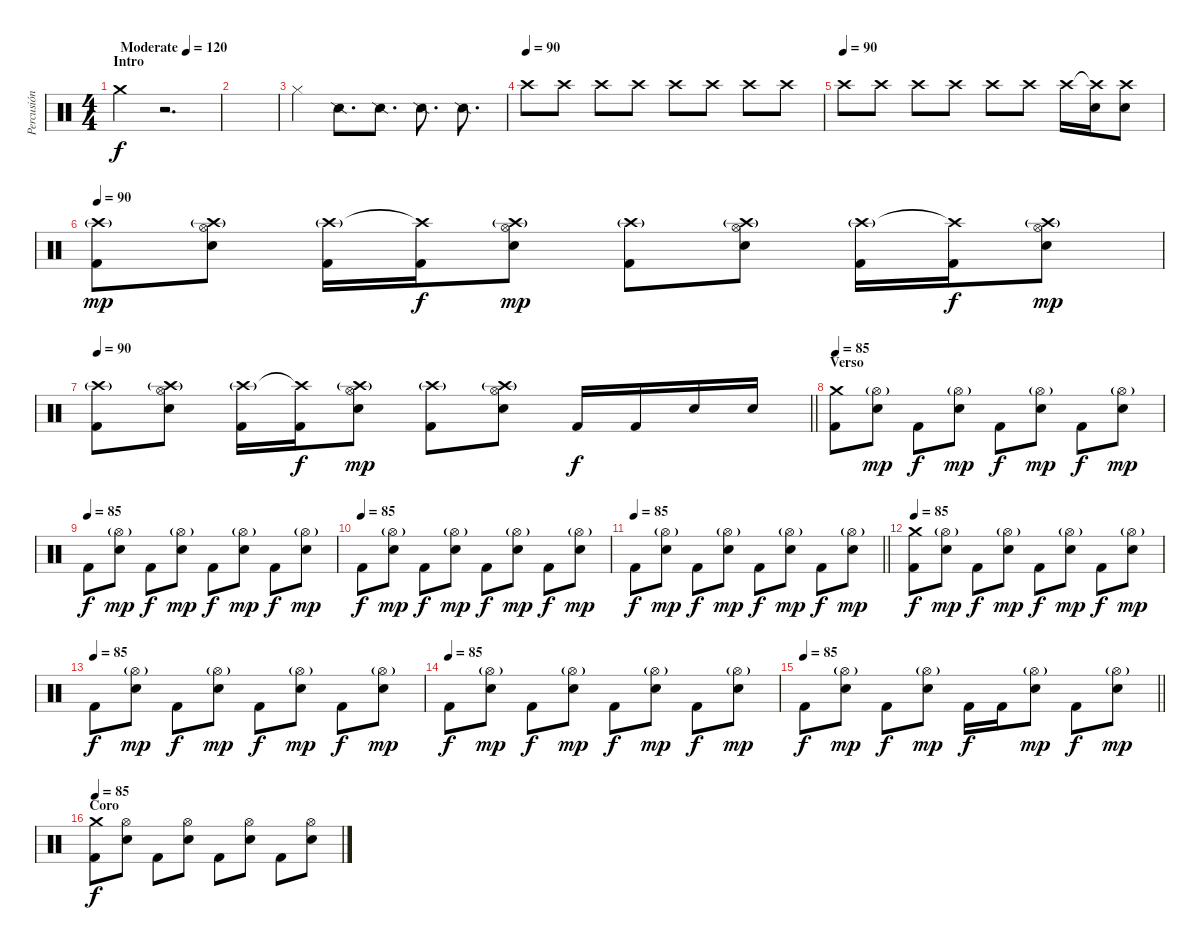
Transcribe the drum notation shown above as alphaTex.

\track ("Percusión" "Percusión") {instrument percussion}
\staff {score}
\articulation defaults
\ts (4 4)
\section ("" "Intro")
\tempo (120 "Moderate")
\clef neutral
\ks c "Crash medium (hit)".4{dy f}
r.2{d} |
|
"Hi-Hat (closed)".4 "Snare (side stick) 2".8{d} "Snare (side stick) 2".8{d} "Snare (side stick) 2".8{d} "Snare (side stick) 2".8{d} |
\tempo (90)
"Crash high (hit)".8 "Crash high (hit)".8 "Crash high (hit)".8 "Crash high (hit)".8 "Crash high (hit)".8 "Crash high (hit)".8 "Crash high (hit)".8 "Crash high (hit)".8 |
\tempo (90)
"Crash high (hit)".8 "Crash high (hit)".8 "Crash high (hit)".8 "Crash high (hit)".8 "Crash high (hit)".8 "Crash high (hit)".8 "Crash high (hit)".16 ("Crash high (hit)"{t} "Snare (hit) 2").16 ("Crash high (hit)" "Electric Snare (hit)").8 |
\tempo 90
("Crash high (hit)"{g} "Kick (hit) 2").8{dy mp} ("Hi-Hat (open)" "Crash high (hit)"{g} "Electric Snare (hit)").8 ("Crash high (hit)"{g} "Kick (hit) 2").16 ("Crash high (hit)"{t} "Kick (hit) 2").16{dy f} ("Hi-Hat (open)" "Crash high (hit)"{g} "Electric Snare (hit)").8{dy mp} ("Crash high (hit)"{g} "Kick (hit) 2").8 ("Hi-Hat (open)" "Crash high (hit)"{g} "Electric Snare (hit)").8 ("Crash high (hit)"{g} "Kick (hit) 2").16 ("Crash high (hit)"{t} "Kick (hit) 2").16{dy f} ("Hi-Hat (open)" "Crash high (hit)"{g} "Electric Snare (hit)").8{dy mp} |
\tempo 90
\barLineRight lightlight
("Crash high (hit)"{g} "Kick (hit) 2").8 ("Hi-Hat (open)" "Crash high (hit)"{g} "Electric Snare (hit)").8 ("Crash high (hit)"{g} "Kick (hit) 2").16 ("Crash high (hit)"{t} "Kick (hit) 2").16{dy f} ("Hi-Hat (open)" "Crash high (hit)"{g} "Electric Snare (hit)").8{dy mp} ("Crash high (hit)"{g} "Kick (hit) 2").8 ("Hi-Hat (open)" "Crash high (hit)"{g} "Electric Snare (hit)").8 "Kick (hit) 2".16{dy f} "Kick (hit) 2".16 "Electric Snare (hit)".16 "Electric Snare (hit)".16 |
\section ("" "Verso")
\tempo 85
("Crash medium (hit)" "Kick (hit) 2").8 ("Hi-Hat (open)"{g} "Electric Snare (hit)").8{dy mp} "Kick (hit) 2".8{dy f} ("Hi-Hat (open)"{g} "Electric Snare (hit)").8{dy mp} "Kick (hit) 2".8{dy f} ("Hi-Hat (open)"{g} "Electric Snare (hit)").8{dy mp} "Kick (hit) 2".8{dy f} ("Hi-Hat (open)"{g} "Electric Snare (hit)").8{dy mp} |
\tempo (85)
"Kick (hit) 2".8{dy f} ("Hi-Hat (open)"{g} "Electric Snare (hit)").8{dy mp} "Kick (hit) 2".8{dy f} ("Hi-Hat (open)"{g} "Electric Snare (hit)").8{dy mp} "Kick (hit) 2".8{dy f} ("Hi-Hat (open)"{g} "Electric Snare (hit)").8{dy mp} "Kick (hit) 2".8{dy f} ("Hi-Hat (open)"{g} "Electric Snare (hit)").8{dy mp} |
\tempo (85)
"Kick (hit) 2".8{dy f} ("Hi-Hat (open)"{g} "Electric Snare (hit)").8{dy mp} "Kick (hit) 2".8{dy f} ("Hi-Hat (open)"{g} "Electric Snare (hit)").8{dy mp} "Kick (hit) 2".8{dy f} ("Hi-Hat (open)"{g} "Electric Snare (hit)").8{dy mp} "Kick (hit) 2".8{dy f} ("Hi-Hat (open)"{g} "Electric Snare (hit)").8{dy mp} |
\tempo 90
\tempo 85
\barLineRight lightlight "Kick (hit) 2".8{dy f}
("Hi-Hat (open)"{g} "Electric Snare (hit)").8{dy mp} "Kick (hit) 2".8{dy f} ("Hi-Hat (open)"{g} "Electric Snare (hit)").8{dy mp} "Kick (hit) 2".8{dy f} ("Hi-Hat (open)"{g} "Electric Snare (hit)").8{dy mp} "Kick (hit) 2".8{dy f} ("Hi-Hat (open)"{g} "Electric Snare (hit)").8{dy mp} |
\section ("" "")
\tempo 85
("Crash medium (hit)" "Kick (hit) 2").8{dy f} ("Hi-Hat (open)"{g} "Electric Snare (hit)").8{dy mp} "Kick (hit) 2".8{dy f} ("Hi-Hat (open)"{g} "Electric Snare (hit)").8{dy mp} "Kick (hit) 2".8{dy f} ("Hi-Hat (open)"{g} "Electric Snare (hit)").8{dy mp} "Kick (hit) 2".8{dy f} ("Hi-Hat (open)"{g} "Electric Snare (hit)").8{dy mp} |
\tempo (85)
"Kick (hit) 2".8{dy f} ("Hi-Hat (open)"{g} "Electric Snare (hit)").8{dy mp} "Kick (hit) 2".8{dy f} ("Hi-Hat (open)"{g} "Electric Snare (hit)").8{dy mp} "Kick (hit) 2".8{dy f} ("Hi-Hat (open)"{g} "Electric Snare (hit)").8{dy mp} "Kick (hit) 2".8{dy f} ("Hi-Hat (open)"{g} "Electric Snare (hit)").8{dy mp} |
\tempo (85)
"Kick (hit) 2".8{dy f} ("Hi-Hat (open)"{g} "Electric Snare (hit)").8{dy mp} "Kick (hit) 2".8{dy f} ("Hi-Hat (open)"{g} "Electric Snare (hit)").8{dy mp} "Kick (hit) 2".8{dy f} ("Hi-Hat (open)"{g} "Electric Snare (hit)").8{dy mp} "Kick (hit) 2".8{dy f} ("Hi-Hat (open)"{g} "Electric Snare (hit)").8{dy mp} |
\tempo 90
\tempo 85
\barLineRight lightlight "Kick (hit) 2".8{dy f}
("Hi-Hat (open)"{g} "Electric Snare (hit)").8{dy mp} "Kick (hit) 2".8{dy f} ("Hi-Hat (open)"{g} "Electric Snare (hit)").8{dy mp} "Kick (hit) 2".16{dy f} "Kick (hit) 2".16 ("Hi-Hat (open)"{g} "Electric Snare (hit)").8{dy mp} "Kick (hit) 2".8{dy f} ("Hi-Hat (open)"{g} "Electric Snare (hit)").8{dy mp} |
\section ("" "Coro")
\tempo 85
("Crash medium (hit)" "Kick (hit) 2").8{dy f} ("Hi-Hat (open)" "Electric Snare (hit)").8 "Kick (hit) 2".8 ("Hi-Hat (open)" "Electric Snare (hit)").8 "Kick (hit) 2".8 ("Hi-Hat (open)" "Electric Snare (hit)").8 "Kick (hit) 2".8 ("Hi-Hat (open)" "Electric Snare (hit)").8
